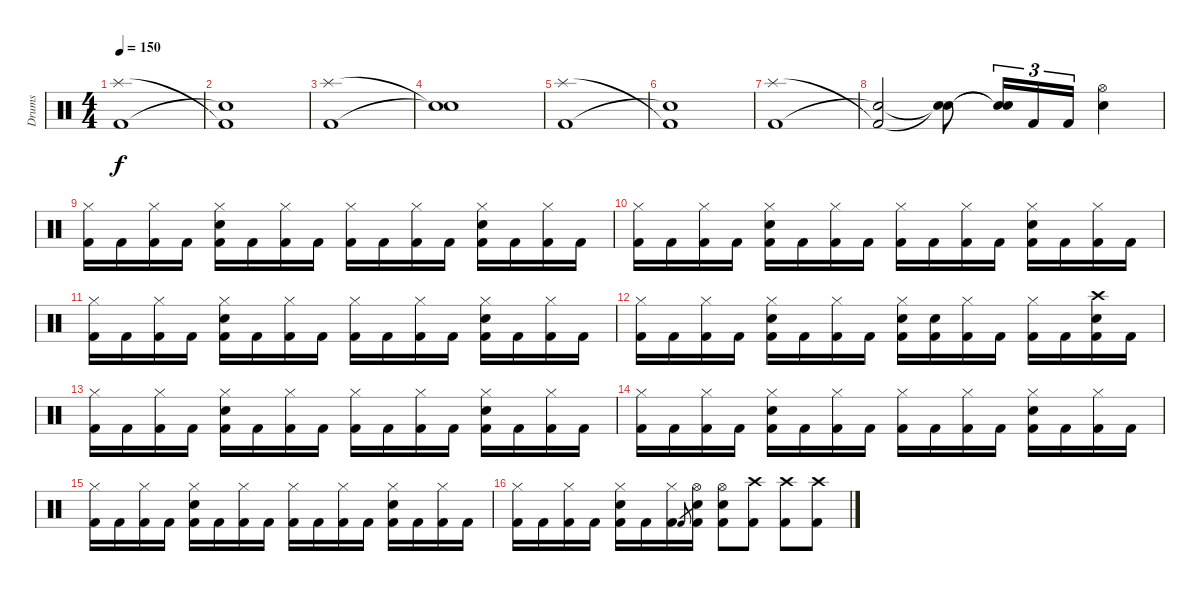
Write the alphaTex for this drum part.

\track ("Drums" "Drums") {instrument percussion}
\staff {score}
\articulation defaults
\ts (4 4)
\tempo 150
\clef neutral
\ks c
("Splash (hit)" "Kick (hit) 2").1{dy f} |
("Kick (hit) 2"{t} "Snare (hit)"{t}).1 |
("Splash (hit)" "Kick (hit) 2").1 |
("Snare (hit)"{t} "Snare (hit)"{t}).1 |
("Splash (hit)" "Kick (hit) 2").1 |
("Kick (hit) 2"{t} "Snare (hit)"{t}).1 |
("Splash (hit)" "Kick (hit) 2").1 |
("Kick (hit) 2"{t} "Snare (hit)"{t}).2 ("Snare (hit)"{t} "Snare (hit)"{t}).8 ("Snare (hit)"{t} "Snare (hit)"{t}).16{tu (3 2)} "Kick (hit) 2".16{tu (3 2)} "Kick (hit) 2".16{tu (3 2)} ("Snare (hit) 2" "Hi-Hat (open)").4 |
("Hi-Hat (closed)" "Kick (hit) 2").16 "Kick (hit) 2".16 ("Hi-Hat (closed)" "Kick (hit) 2").16 "Kick (hit) 2".16 ("Snare (hit) 2" "Hi-Hat (closed)" "Kick (hit) 2").16 "Kick (hit) 2".16 ("Hi-Hat (closed)" "Kick (hit) 2").16 "Kick (hit) 2".16 ("Hi-Hat (closed)" "Kick (hit) 2").16 "Kick (hit) 2".16 ("Hi-Hat (closed)" "Kick (hit) 2").16 "Kick (hit) 2".16 ("Snare (hit) 2" "Hi-Hat (closed)" "Kick (hit) 2").16 "Kick (hit) 2".16 ("Hi-Hat (closed)" "Kick (hit) 2").16 "Kick (hit) 2".16 |
("Hi-Hat (closed)" "Kick (hit) 2").16 "Kick (hit) 2".16 ("Hi-Hat (closed)" "Kick (hit) 2").16 "Kick (hit) 2".16 ("Snare (hit) 2" "Hi-Hat (closed)" "Kick (hit) 2").16 "Kick (hit) 2".16 ("Hi-Hat (closed)" "Kick (hit) 2").16 "Kick (hit) 2".16 ("Hi-Hat (closed)" "Kick (hit) 2").16 "Kick (hit) 2".16 ("Hi-Hat (closed)" "Kick (hit) 2").16 "Kick (hit) 2".16 ("Snare (hit) 2" "Hi-Hat (closed)" "Kick (hit) 2").16 "Kick (hit) 2".16 ("Hi-Hat (closed)" "Kick (hit) 2").16 "Kick (hit) 2".16 |
("Hi-Hat (closed)" "Kick (hit) 2").16 "Kick (hit) 2".16 ("Hi-Hat (closed)" "Kick (hit) 2").16 "Kick (hit) 2".16 ("Snare (hit) 2" "Hi-Hat (closed)" "Kick (hit) 2").16 "Kick (hit) 2".16 ("Hi-Hat (closed)" "Kick (hit) 2").16 "Kick (hit) 2".16 ("Hi-Hat (closed)" "Kick (hit) 2").16 "Kick (hit) 2".16 ("Hi-Hat (closed)" "Kick (hit) 2").16 "Kick (hit) 2".16 ("Snare (hit) 2" "Hi-Hat (closed)" "Kick (hit) 2").16 "Kick (hit) 2".16 ("Hi-Hat (closed)" "Kick (hit) 2").16 "Kick (hit) 2".16 |
("Hi-Hat (closed)" "Kick (hit) 2").16 "Kick (hit) 2".16 ("Hi-Hat (closed)" "Kick (hit) 2").16 "Kick (hit) 2".16 ("Snare (hit) 2" "Hi-Hat (closed)" "Kick (hit) 2").16 "Kick (hit) 2".16 ("Hi-Hat (closed)" "Kick (hit) 2").16 "Kick (hit) 2".16 ("Snare (hit) 2" "Hi-Hat (closed)" "Kick (hit) 2").16 ("Snare (hit) 2" "Kick (hit) 2").16 ("Hi-Hat (closed)" "Kick (hit) 2").16 "Kick (hit) 2".16 ("Hi-Hat (closed)" "Kick (hit) 2").16 "Kick (hit) 2".16 ("Snare (hit) 2" "Crash high (hit)" "Kick (hit) 2").16 "Kick (hit) 2".16 |
("Hi-Hat (closed)" "Kick (hit) 2").16 "Kick (hit) 2".16 ("Hi-Hat (closed)" "Kick (hit) 2").16 "Kick (hit) 2".16 ("Snare (hit) 2" "Hi-Hat (closed)" "Kick (hit) 2").16 "Kick (hit) 2".16 ("Hi-Hat (closed)" "Kick (hit) 2").16 "Kick (hit) 2".16 ("Hi-Hat (closed)" "Kick (hit) 2").16 "Kick (hit) 2".16 ("Hi-Hat (closed)" "Kick (hit) 2").16 "Kick (hit) 2".16 ("Snare (hit) 2" "Hi-Hat (closed)" "Kick (hit) 2").16 "Kick (hit) 2".16 ("Hi-Hat (closed)" "Kick (hit) 2").16 "Kick (hit) 2".16 |
("Hi-Hat (closed)" "Kick (hit) 2").16 "Kick (hit) 2".16 ("Hi-Hat (closed)" "Kick (hit) 2").16 "Kick (hit) 2".16 ("Snare (hit) 2" "Hi-Hat (closed)" "Kick (hit) 2").16 "Kick (hit) 2".16 ("Hi-Hat (closed)" "Kick (hit) 2").16 "Kick (hit) 2".16 ("Hi-Hat (closed)" "Kick (hit) 2").16 "Kick (hit) 2".16 ("Hi-Hat (closed)" "Kick (hit) 2").16 "Kick (hit) 2".16 ("Snare (hit) 2" "Hi-Hat (closed)" "Kick (hit) 2").16 "Kick (hit) 2".16 ("Hi-Hat (closed)" "Kick (hit) 2").16 "Kick (hit) 2".16 |
("Hi-Hat (closed)" "Kick (hit) 2").16 "Kick (hit) 2".16 ("Hi-Hat (closed)" "Kick (hit) 2").16 "Kick (hit) 2".16 ("Snare (hit) 2" "Hi-Hat (closed)" "Kick (hit) 2").16 "Kick (hit) 2".16 ("Hi-Hat (closed)" "Kick (hit) 2").16 "Kick (hit) 2".16 ("Hi-Hat (closed)" "Kick (hit) 2").16 "Kick (hit) 2".16 ("Hi-Hat (closed)" "Kick (hit) 2").16 "Kick (hit) 2".16 ("Snare (hit) 2" "Hi-Hat (closed)" "Kick (hit) 2").16 "Kick (hit) 2".16 ("Hi-Hat (closed)" "Kick (hit) 2").16 "Kick (hit) 2".16 |
("Hi-Hat (closed)" "Kick (hit) 2").16 "Kick (hit) 2".16 ("Hi-Hat (closed)" "Kick (hit) 2").16 "Kick (hit) 2".16 ("Snare (hit) 2" "Hi-Hat (closed)" "Kick (hit) 2").16 "Kick (hit) 2".16 ("Hi-Hat (closed)" "Kick (hit) 2").16 "Kick (hit) 2".8{gr} ("Hi-Hat (open)" "Snare (hit) 2" "Kick (hit) 2").16 ("Hi-Hat (open)" "Snare (hit) 2" "Kick (hit) 2").8 ("Crash high (hit)" "Kick (hit) 2").8 ("Crash high (hit)" "Kick (hit) 2").8 ("Crash high (hit)" "Kick (hit) 2").8
